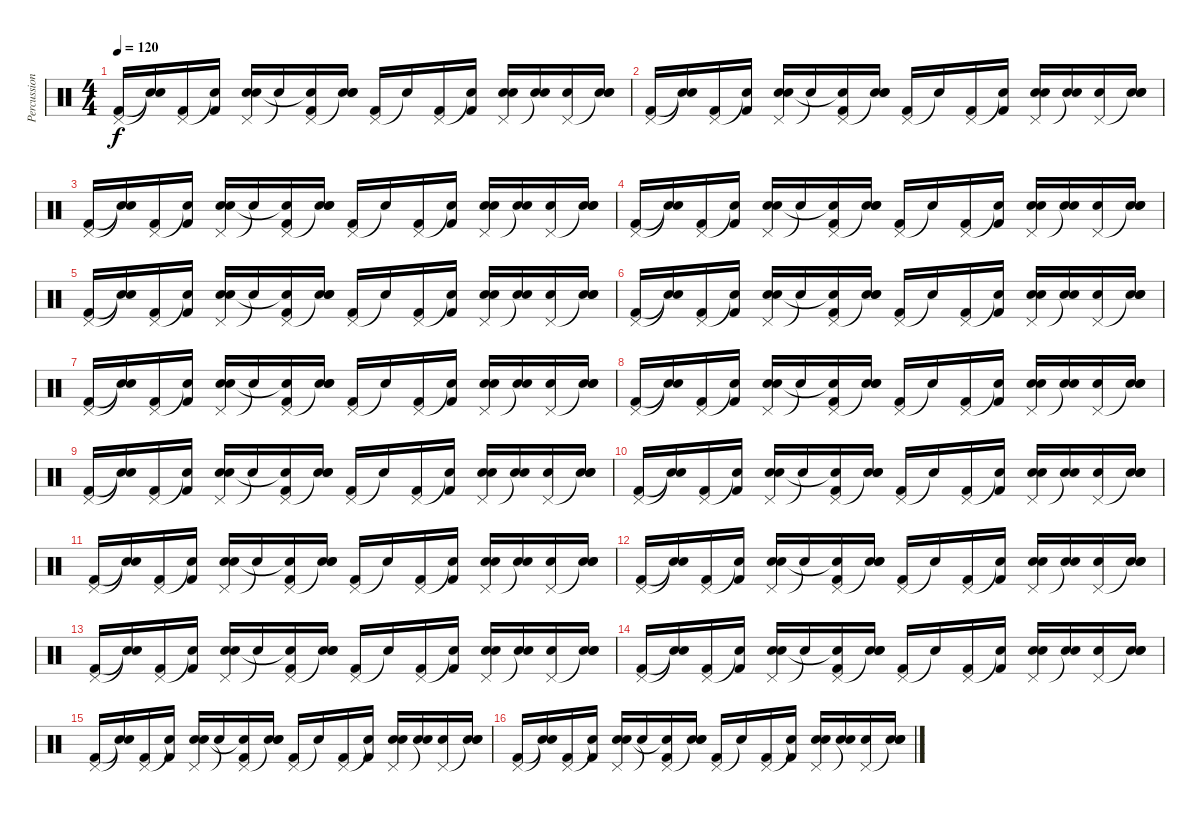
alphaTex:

\track ("Percussions" "Percussion") {instrument percussion}
\staff {score}
\articulation defaults
\ts (4 4)
\tempo 120
\clef neutral
\ks c
("Pedal Hi-Hat (hit)" "Kick (hit) 2").16{dy f} ("Snare (hit)"{t} "Snare (hit)"{t}).16 ("Pedal Hi-Hat (hit)" "Kick (hit) 2").16 ("Snare (hit)"{t} "Kick (hit) 2").16 ("Pedal Hi-Hat (hit)" "Electric Snare (hit)" "Snare (hit) 2").16 "Snare (hit)"{t}.16 ("Pedal Hi-Hat (hit)" "Snare (hit)"{t} "Kick (hit) 2").16 ("Snare (hit)"{t} "Electric Snare (hit)" "Snare (hit) 2").16 ("Pedal Hi-Hat (hit)" "Kick (hit) 2").16 "Snare (hit)"{t}.16 ("Pedal Hi-Hat (hit)" "Kick (hit) 2").16 ("Snare (hit)"{t} "Kick (hit) 2").16 ("Pedal Hi-Hat (hit)" "Electric Snare (hit)" "Snare (hit) 2").16 ("Snare (hit)"{t} "Snare (hit) 2").16 ("Pedal Hi-Hat (hit)" "Snare (hit) 2").16 ("Snare (hit)"{t} "Electric Snare (hit)" "Snare (hit) 2").16 |
("Pedal Hi-Hat (hit)" "Kick (hit) 2").16 ("Snare (hit)"{t} "Snare (hit)"{t}).16 ("Pedal Hi-Hat (hit)" "Kick (hit) 2").16 ("Snare (hit)"{t} "Kick (hit) 2").16 ("Pedal Hi-Hat (hit)" "Electric Snare (hit)" "Snare (hit) 2").16 "Snare (hit)"{t}.16 ("Pedal Hi-Hat (hit)" "Snare (hit)"{t} "Kick (hit) 2").16 ("Snare (hit)"{t} "Electric Snare (hit)" "Snare (hit) 2").16 ("Pedal Hi-Hat (hit)" "Kick (hit) 2").16 "Snare (hit)"{t}.16 ("Pedal Hi-Hat (hit)" "Kick (hit) 2").16 ("Snare (hit)"{t} "Kick (hit) 2").16 ("Pedal Hi-Hat (hit)" "Electric Snare (hit)" "Snare (hit) 2").16 ("Snare (hit)"{t} "Snare (hit) 2").16 ("Pedal Hi-Hat (hit)" "Snare (hit) 2").16 ("Snare (hit)"{t} "Electric Snare (hit)" "Snare (hit) 2").16 |
("Pedal Hi-Hat (hit)" "Kick (hit) 2").16 ("Snare (hit)"{t} "Snare (hit)"{t}).16 ("Pedal Hi-Hat (hit)" "Kick (hit) 2").16 ("Snare (hit)"{t} "Kick (hit) 2").16 ("Pedal Hi-Hat (hit)" "Electric Snare (hit)" "Snare (hit) 2").16 "Snare (hit)"{t}.16 ("Pedal Hi-Hat (hit)" "Snare (hit)"{t} "Kick (hit) 2").16 ("Snare (hit)"{t} "Electric Snare (hit)" "Snare (hit) 2").16 ("Pedal Hi-Hat (hit)" "Kick (hit) 2").16 "Snare (hit)"{t}.16 ("Pedal Hi-Hat (hit)" "Kick (hit) 2").16 ("Snare (hit)"{t} "Kick (hit) 2").16 ("Pedal Hi-Hat (hit)" "Electric Snare (hit)" "Snare (hit) 2").16 ("Snare (hit)"{t} "Snare (hit) 2").16 ("Pedal Hi-Hat (hit)" "Snare (hit) 2").16 ("Snare (hit)"{t} "Electric Snare (hit)" "Snare (hit) 2").16 |
("Pedal Hi-Hat (hit)" "Kick (hit) 2").16 ("Snare (hit)"{t} "Snare (hit)"{t}).16 ("Pedal Hi-Hat (hit)" "Kick (hit) 2").16 ("Snare (hit)"{t} "Kick (hit) 2").16 ("Pedal Hi-Hat (hit)" "Electric Snare (hit)" "Snare (hit) 2").16 "Snare (hit)"{t}.16 ("Pedal Hi-Hat (hit)" "Snare (hit)"{t} "Kick (hit) 2").16 ("Snare (hit)"{t} "Electric Snare (hit)" "Snare (hit) 2").16 ("Pedal Hi-Hat (hit)" "Kick (hit) 2").16 "Snare (hit)"{t}.16 ("Pedal Hi-Hat (hit)" "Kick (hit) 2").16 ("Snare (hit)"{t} "Kick (hit) 2").16 ("Pedal Hi-Hat (hit)" "Electric Snare (hit)" "Snare (hit) 2").16 ("Snare (hit)"{t} "Snare (hit) 2").16 ("Pedal Hi-Hat (hit)" "Snare (hit) 2").16 ("Snare (hit)"{t} "Electric Snare (hit)" "Snare (hit) 2").16 |
("Pedal Hi-Hat (hit)" "Kick (hit) 2").16 ("Snare (hit)"{t} "Snare (hit)"{t}).16 ("Pedal Hi-Hat (hit)" "Kick (hit) 2").16 ("Snare (hit)"{t} "Kick (hit) 2").16 ("Pedal Hi-Hat (hit)" "Electric Snare (hit)" "Snare (hit) 2").16 "Snare (hit)"{t}.16 ("Pedal Hi-Hat (hit)" "Snare (hit)"{t} "Kick (hit) 2").16 ("Snare (hit)"{t} "Electric Snare (hit)" "Snare (hit) 2").16 ("Pedal Hi-Hat (hit)" "Kick (hit) 2").16 "Snare (hit)"{t}.16 ("Pedal Hi-Hat (hit)" "Kick (hit) 2").16 ("Snare (hit)"{t} "Kick (hit) 2").16 ("Pedal Hi-Hat (hit)" "Electric Snare (hit)" "Snare (hit) 2").16 ("Snare (hit)"{t} "Snare (hit) 2").16 ("Pedal Hi-Hat (hit)" "Snare (hit) 2").16 ("Snare (hit)"{t} "Electric Snare (hit)" "Snare (hit) 2").16 |
("Pedal Hi-Hat (hit)" "Kick (hit) 2").16 ("Snare (hit)"{t} "Snare (hit)"{t}).16 ("Pedal Hi-Hat (hit)" "Kick (hit) 2").16 ("Snare (hit)"{t} "Kick (hit) 2").16 ("Pedal Hi-Hat (hit)" "Electric Snare (hit)" "Snare (hit) 2").16 "Snare (hit)"{t}.16 ("Pedal Hi-Hat (hit)" "Snare (hit)"{t} "Kick (hit) 2").16 ("Snare (hit)"{t} "Electric Snare (hit)" "Snare (hit) 2").16 ("Pedal Hi-Hat (hit)" "Kick (hit) 2").16 "Snare (hit)"{t}.16 ("Pedal Hi-Hat (hit)" "Kick (hit) 2").16 ("Snare (hit)"{t} "Kick (hit) 2").16 ("Pedal Hi-Hat (hit)" "Electric Snare (hit)" "Snare (hit) 2").16 ("Snare (hit)"{t} "Snare (hit) 2").16 ("Pedal Hi-Hat (hit)" "Snare (hit) 2").16 ("Snare (hit)"{t} "Electric Snare (hit)" "Snare (hit) 2").16 |
("Pedal Hi-Hat (hit)" "Kick (hit) 2").16 ("Snare (hit)"{t} "Snare (hit)"{t}).16 ("Pedal Hi-Hat (hit)" "Kick (hit) 2").16 ("Snare (hit)"{t} "Kick (hit) 2").16 ("Pedal Hi-Hat (hit)" "Electric Snare (hit)" "Snare (hit) 2").16 "Snare (hit)"{t}.16 ("Pedal Hi-Hat (hit)" "Snare (hit)"{t} "Kick (hit) 2").16 ("Snare (hit)"{t} "Electric Snare (hit)" "Snare (hit) 2").16 ("Pedal Hi-Hat (hit)" "Kick (hit) 2").16 "Snare (hit)"{t}.16 ("Pedal Hi-Hat (hit)" "Kick (hit) 2").16 ("Snare (hit)"{t} "Kick (hit) 2").16 ("Pedal Hi-Hat (hit)" "Electric Snare (hit)" "Snare (hit) 2").16 ("Snare (hit)"{t} "Snare (hit) 2").16 ("Pedal Hi-Hat (hit)" "Snare (hit) 2").16 ("Snare (hit)"{t} "Electric Snare (hit)" "Snare (hit) 2").16 |
("Pedal Hi-Hat (hit)" "Kick (hit) 2").16 ("Snare (hit)"{t} "Snare (hit)"{t}).16 ("Pedal Hi-Hat (hit)" "Kick (hit) 2").16 ("Snare (hit)"{t} "Kick (hit) 2").16 ("Pedal Hi-Hat (hit)" "Electric Snare (hit)" "Snare (hit) 2").16 "Snare (hit)"{t}.16 ("Pedal Hi-Hat (hit)" "Snare (hit)"{t} "Kick (hit) 2").16 ("Snare (hit)"{t} "Electric Snare (hit)" "Snare (hit) 2").16 ("Pedal Hi-Hat (hit)" "Kick (hit) 2").16 "Snare (hit)"{t}.16 ("Pedal Hi-Hat (hit)" "Kick (hit) 2").16 ("Snare (hit)"{t} "Kick (hit) 2").16 ("Pedal Hi-Hat (hit)" "Electric Snare (hit)" "Snare (hit) 2").16 ("Snare (hit)"{t} "Snare (hit) 2").16 ("Pedal Hi-Hat (hit)" "Snare (hit) 2").16 ("Snare (hit)"{t} "Electric Snare (hit)" "Snare (hit) 2").16 |
("Pedal Hi-Hat (hit)" "Kick (hit) 2").16 ("Snare (hit)"{t} "Snare (hit)"{t}).16 ("Pedal Hi-Hat (hit)" "Kick (hit) 2").16 ("Snare (hit)"{t} "Kick (hit) 2").16 ("Pedal Hi-Hat (hit)" "Electric Snare (hit)" "Snare (hit) 2").16 "Snare (hit)"{t}.16 ("Pedal Hi-Hat (hit)" "Snare (hit)"{t} "Kick (hit) 2").16 ("Snare (hit)"{t} "Electric Snare (hit)" "Snare (hit) 2").16 ("Pedal Hi-Hat (hit)" "Kick (hit) 2").16 "Snare (hit)"{t}.16 ("Pedal Hi-Hat (hit)" "Kick (hit) 2").16 ("Snare (hit)"{t} "Kick (hit) 2").16 ("Pedal Hi-Hat (hit)" "Electric Snare (hit)" "Snare (hit) 2").16 ("Snare (hit)"{t} "Snare (hit) 2").16 ("Pedal Hi-Hat (hit)" "Snare (hit) 2").16 ("Snare (hit)"{t} "Electric Snare (hit)" "Snare (hit) 2").16 |
("Pedal Hi-Hat (hit)" "Kick (hit) 2").16 ("Snare (hit)"{t} "Snare (hit)"{t}).16 ("Pedal Hi-Hat (hit)" "Kick (hit) 2").16 ("Snare (hit)"{t} "Kick (hit) 2").16 ("Pedal Hi-Hat (hit)" "Electric Snare (hit)" "Snare (hit) 2").16 "Snare (hit)"{t}.16 ("Pedal Hi-Hat (hit)" "Snare (hit)"{t} "Kick (hit) 2").16 ("Snare (hit)"{t} "Electric Snare (hit)" "Snare (hit) 2").16 ("Pedal Hi-Hat (hit)" "Kick (hit) 2").16 "Snare (hit)"{t}.16 ("Pedal Hi-Hat (hit)" "Kick (hit) 2").16 ("Snare (hit)"{t} "Kick (hit) 2").16 ("Pedal Hi-Hat (hit)" "Electric Snare (hit)" "Snare (hit) 2").16 ("Snare (hit)"{t} "Snare (hit) 2").16 ("Pedal Hi-Hat (hit)" "Snare (hit) 2").16 ("Snare (hit)"{t} "Electric Snare (hit)" "Snare (hit) 2").16 |
("Pedal Hi-Hat (hit)" "Kick (hit) 2").16 ("Snare (hit)"{t} "Snare (hit)"{t}).16 ("Pedal Hi-Hat (hit)" "Kick (hit) 2").16 ("Snare (hit)"{t} "Kick (hit) 2").16 ("Pedal Hi-Hat (hit)" "Electric Snare (hit)" "Snare (hit) 2").16 "Snare (hit)"{t}.16 ("Pedal Hi-Hat (hit)" "Snare (hit)"{t} "Kick (hit) 2").16 ("Snare (hit)"{t} "Electric Snare (hit)" "Snare (hit) 2").16 ("Pedal Hi-Hat (hit)" "Kick (hit) 2").16 "Snare (hit)"{t}.16 ("Pedal Hi-Hat (hit)" "Kick (hit) 2").16 ("Snare (hit)"{t} "Kick (hit) 2").16 ("Pedal Hi-Hat (hit)" "Electric Snare (hit)" "Snare (hit) 2").16 ("Snare (hit)"{t} "Snare (hit) 2").16 ("Pedal Hi-Hat (hit)" "Snare (hit) 2").16 ("Snare (hit)"{t} "Electric Snare (hit)" "Snare (hit) 2").16 |
("Pedal Hi-Hat (hit)" "Kick (hit) 2").16 ("Snare (hit)"{t} "Snare (hit)"{t}).16 ("Pedal Hi-Hat (hit)" "Kick (hit) 2").16 ("Snare (hit)"{t} "Kick (hit) 2").16 ("Pedal Hi-Hat (hit)" "Electric Snare (hit)" "Snare (hit) 2").16 "Snare (hit)"{t}.16 ("Pedal Hi-Hat (hit)" "Snare (hit)"{t} "Kick (hit) 2").16 ("Snare (hit)"{t} "Electric Snare (hit)" "Snare (hit) 2").16 ("Pedal Hi-Hat (hit)" "Kick (hit) 2").16 "Snare (hit)"{t}.16 ("Pedal Hi-Hat (hit)" "Kick (hit) 2").16 ("Snare (hit)"{t} "Kick (hit) 2").16 ("Pedal Hi-Hat (hit)" "Electric Snare (hit)" "Snare (hit) 2").16 ("Snare (hit)"{t} "Snare (hit) 2").16 ("Pedal Hi-Hat (hit)" "Snare (hit) 2").16 ("Snare (hit)"{t} "Electric Snare (hit)" "Snare (hit) 2").16 |
("Pedal Hi-Hat (hit)" "Kick (hit) 2").16 ("Snare (hit)"{t} "Snare (hit)"{t}).16 ("Pedal Hi-Hat (hit)" "Kick (hit) 2").16 ("Snare (hit)"{t} "Kick (hit) 2").16 ("Pedal Hi-Hat (hit)" "Electric Snare (hit)" "Snare (hit) 2").16 "Snare (hit)"{t}.16 ("Pedal Hi-Hat (hit)" "Snare (hit)"{t} "Kick (hit) 2").16 ("Snare (hit)"{t} "Electric Snare (hit)" "Snare (hit) 2").16 ("Pedal Hi-Hat (hit)" "Kick (hit) 2").16 "Snare (hit)"{t}.16 ("Pedal Hi-Hat (hit)" "Kick (hit) 2").16 ("Snare (hit)"{t} "Kick (hit) 2").16 ("Pedal Hi-Hat (hit)" "Electric Snare (hit)" "Snare (hit) 2").16 ("Snare (hit)"{t} "Snare (hit) 2").16 ("Pedal Hi-Hat (hit)" "Snare (hit) 2").16 ("Snare (hit)"{t} "Electric Snare (hit)" "Snare (hit) 2").16 |
("Pedal Hi-Hat (hit)" "Kick (hit) 2").16 ("Snare (hit)"{t} "Snare (hit)"{t}).16 ("Pedal Hi-Hat (hit)" "Kick (hit) 2").16 ("Snare (hit)"{t} "Kick (hit) 2").16 ("Pedal Hi-Hat (hit)" "Electric Snare (hit)" "Snare (hit) 2").16 "Snare (hit)"{t}.16 ("Pedal Hi-Hat (hit)" "Snare (hit)"{t} "Kick (hit) 2").16 ("Snare (hit)"{t} "Electric Snare (hit)" "Snare (hit) 2").16 ("Pedal Hi-Hat (hit)" "Kick (hit) 2").16 "Snare (hit)"{t}.16 ("Pedal Hi-Hat (hit)" "Kick (hit) 2").16 ("Snare (hit)"{t} "Kick (hit) 2").16 ("Pedal Hi-Hat (hit)" "Electric Snare (hit)" "Snare (hit) 2").16 ("Snare (hit)"{t} "Snare (hit) 2").16 ("Pedal Hi-Hat (hit)" "Snare (hit) 2").16 ("Snare (hit)"{t} "Electric Snare (hit)" "Snare (hit) 2").16 |
("Pedal Hi-Hat (hit)" "Kick (hit) 2").16 ("Snare (hit)"{t} "Snare (hit)"{t}).16 ("Pedal Hi-Hat (hit)" "Kick (hit) 2").16 ("Snare (hit)"{t} "Kick (hit) 2").16 ("Pedal Hi-Hat (hit)" "Electric Snare (hit)" "Snare (hit) 2").16 "Snare (hit)"{t}.16 ("Pedal Hi-Hat (hit)" "Snare (hit)"{t} "Kick (hit) 2").16 ("Snare (hit)"{t} "Electric Snare (hit)" "Snare (hit) 2").16 ("Pedal Hi-Hat (hit)" "Kick (hit) 2").16 "Snare (hit)"{t}.16 ("Pedal Hi-Hat (hit)" "Kick (hit) 2").16 ("Snare (hit)"{t} "Kick (hit) 2").16 ("Pedal Hi-Hat (hit)" "Electric Snare (hit)" "Snare (hit) 2").16 ("Snare (hit)"{t} "Snare (hit) 2").16 ("Pedal Hi-Hat (hit)" "Snare (hit) 2").16 ("Snare (hit)"{t} "Electric Snare (hit)" "Snare (hit) 2").16 |
("Pedal Hi-Hat (hit)" "Kick (hit) 2").16 ("Snare (hit)"{t} "Snare (hit)"{t}).16 ("Pedal Hi-Hat (hit)" "Kick (hit) 2").16 ("Snare (hit)"{t} "Kick (hit) 2").16 ("Pedal Hi-Hat (hit)" "Electric Snare (hit)" "Snare (hit) 2").16 "Snare (hit)"{t}.16 ("Pedal Hi-Hat (hit)" "Snare (hit)"{t} "Kick (hit) 2").16 ("Snare (hit)"{t} "Electric Snare (hit)" "Snare (hit) 2").16 ("Pedal Hi-Hat (hit)" "Kick (hit) 2").16 "Snare (hit)"{t}.16 ("Pedal Hi-Hat (hit)" "Kick (hit) 2").16 ("Snare (hit)"{t} "Kick (hit) 2").16 ("Pedal Hi-Hat (hit)" "Electric Snare (hit)" "Snare (hit) 2").16 ("Snare (hit)"{t} "Snare (hit) 2").16 ("Pedal Hi-Hat (hit)" "Snare (hit) 2").16 ("Snare (hit)"{t} "Electric Snare (hit)" "Snare (hit) 2").16
